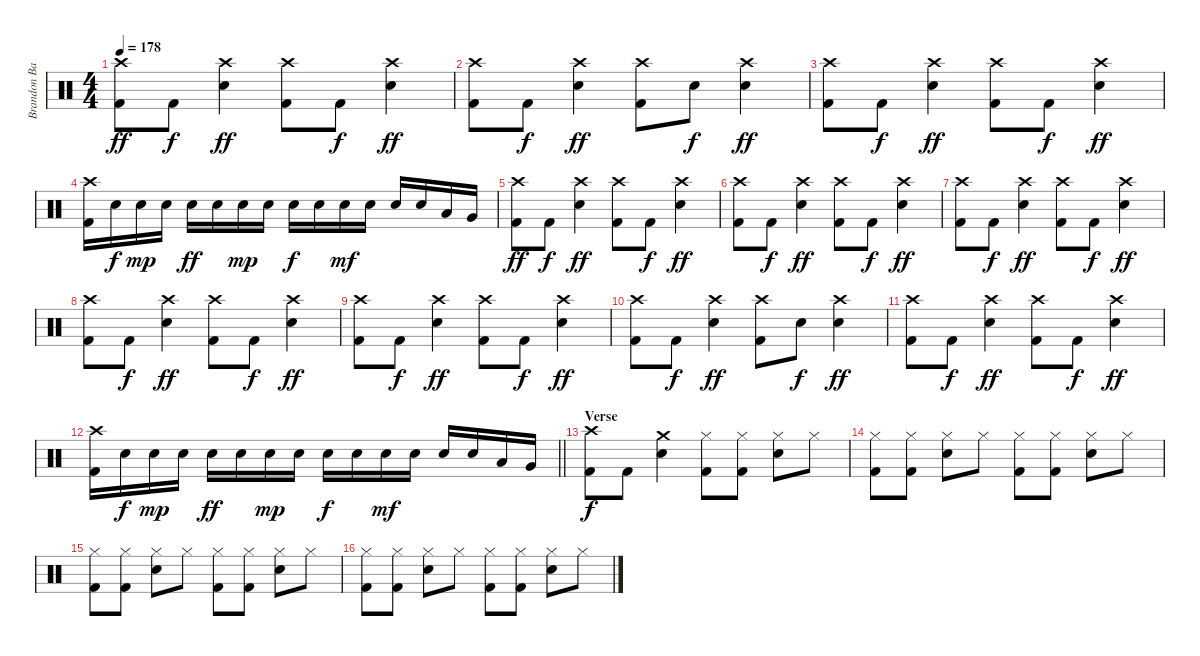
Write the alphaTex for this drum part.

\track ("Brandon Barnes - Drums" "Brandon Ba") {instrument percussion}
\staff {score}
\articulation defaults
\ts (4 4)
\tempo 178
\clef neutral
\ks c
("Crash high (hit)" "Kick (hit) 2").8{dy ff} "Kick (hit) 2".8{dy f} ("Snare (hit) 2" "Crash high (hit)").4{dy ff} ("Crash high (hit)" "Kick (hit) 2").8 "Kick (hit) 2".8{dy f} ("Snare (hit) 2" "Crash high (hit)").4{dy ff} |
("Crash high (hit)" "Kick (hit) 2").8 "Kick (hit) 2".8{dy f} ("Snare (hit) 2" "Crash high (hit)").4{dy ff} ("Crash high (hit)" "Kick (hit) 2").8 "Snare (hit) 2".8{dy f} ("Snare (hit) 2" "Crash high (hit)").4{dy ff} |
("Crash high (hit)" "Kick (hit) 2").8 "Kick (hit) 2".8{dy f} ("Snare (hit) 2" "Crash high (hit)").4{dy ff} ("Crash high (hit)" "Kick (hit) 2").8 "Kick (hit) 2".8{dy f} ("Snare (hit) 2" "Crash high (hit)").4{dy ff} |
("Crash high (hit)" "Kick (hit) 2").16 "Snare (hit) 2".16{dy f} "Snare (hit) 2".16{dy mp} "Snare (hit) 2".16 "Snare (hit) 2".16{dy ff} "Snare (hit) 2".16 "Snare (hit) 2".16{dy mp} "Snare (hit) 2".16 "Snare (hit) 2".16{dy f} "Snare (hit) 2".16 "Snare (hit) 2".16{dy mf} "Snare (hit) 2".16 "Snare (hit) 2".16 "Snare (hit) 2".16 "Low Tom (hit)".16 "Very Low Tom (hit)".16 |
("Crash high (hit)" "Kick (hit) 2").8{dy ff} "Kick (hit) 2".8{dy f} ("Snare (hit) 2" "Crash high (hit)").4{dy ff} ("Crash high (hit)" "Kick (hit) 2").8 "Kick (hit) 2".8{dy f} ("Snare (hit) 2" "Crash high (hit)").4{dy ff} |
("Crash high (hit)" "Kick (hit) 2").8 "Kick (hit) 2".8{dy f} ("Snare (hit) 2" "Crash high (hit)").4{dy ff} ("Crash high (hit)" "Kick (hit) 2").8 "Kick (hit) 2".8{dy f} ("Snare (hit) 2" "Crash high (hit)").4{dy ff} |
("Crash high (hit)" "Kick (hit) 2").8 "Kick (hit) 2".8{dy f} ("Snare (hit) 2" "Crash high (hit)").4{dy ff} ("Crash high (hit)" "Kick (hit) 2").8 "Kick (hit) 2".8{dy f} ("Snare (hit) 2" "Crash high (hit)").4{dy ff} |
("Crash high (hit)" "Kick (hit) 2").8 "Kick (hit) 2".8{dy f} ("Snare (hit) 2" "Crash high (hit)").4{dy ff} ("Crash high (hit)" "Kick (hit) 2").8 "Kick (hit) 2".8{dy f} ("Snare (hit) 2" "Crash high (hit)").4{dy ff} |
("Crash high (hit)" "Kick (hit) 2").8 "Kick (hit) 2".8{dy f} ("Snare (hit) 2" "Crash high (hit)").4{dy ff} ("Crash high (hit)" "Kick (hit) 2").8 "Kick (hit) 2".8{dy f} ("Snare (hit) 2" "Crash high (hit)").4{dy ff} |
("Crash high (hit)" "Kick (hit) 2").8 "Kick (hit) 2".8{dy f} ("Snare (hit) 2" "Crash high (hit)").4{dy ff} ("Crash high (hit)" "Kick (hit) 2").8 "Snare (hit) 2".8{dy f} ("Snare (hit) 2" "Crash high (hit)").4{dy ff} |
("Crash high (hit)" "Kick (hit) 2").8 "Kick (hit) 2".8{dy f} ("Snare (hit) 2" "Crash high (hit)").4{dy ff} ("Crash high (hit)" "Kick (hit) 2").8 "Kick (hit) 2".8{dy f} ("Snare (hit) 2" "Crash high (hit)").4{dy ff} |
\barLineRight lightlight
("Crash high (hit)" "Kick (hit) 2").16 "Snare (hit) 2".16{dy f} "Snare (hit) 2".16{dy mp} "Snare (hit) 2".16 "Snare (hit) 2".16{dy ff} "Snare (hit) 2".16 "Snare (hit) 2".16{dy mp} "Snare (hit) 2".16 "Snare (hit) 2".16{dy f} "Snare (hit) 2".16 "Snare (hit) 2".16{dy mf} "Snare (hit) 2".16 "Snare (hit) 2".16 "Snare (hit) 2".16 "Low Tom (hit)".16 "Very Low Tom (hit)".16 |
\section ("" "Verse")
("Kick (hit) 2" "Crash high (hit)").8{dy f} "Kick (hit) 2".8 ("Snare (hit) 2" "Crash medium (hit)").4 ("Kick (hit) 2" "Hi-Hat (closed)").8 ("Kick (hit) 2" "Hi-Hat (closed)").8 ("Snare (hit) 2" "Hi-Hat (closed)").8 "Hi-Hat (closed)".8 |
("Kick (hit) 2" "Hi-Hat (closed)").8 ("Kick (hit) 2" "Hi-Hat (closed)").8 ("Snare (hit) 2" "Hi-Hat (closed)").8 "Hi-Hat (closed)".8 ("Kick (hit) 2" "Hi-Hat (closed)").8 ("Kick (hit) 2" "Hi-Hat (closed)").8 ("Snare (hit) 2" "Hi-Hat (closed)").8 "Hi-Hat (closed)".8 |
("Kick (hit) 2" "Hi-Hat (closed)").8 ("Kick (hit) 2" "Hi-Hat (closed)").8 ("Snare (hit) 2" "Hi-Hat (closed)").8 "Hi-Hat (closed)".8 ("Kick (hit) 2" "Hi-Hat (closed)").8 ("Kick (hit) 2" "Hi-Hat (closed)").8 ("Snare (hit) 2" "Hi-Hat (closed)").8 "Hi-Hat (closed)".8 |
("Kick (hit) 2" "Hi-Hat (closed)").8 ("Kick (hit) 2" "Hi-Hat (closed)").8 ("Snare (hit) 2" "Hi-Hat (closed)").8 "Hi-Hat (closed)".8 ("Kick (hit) 2" "Hi-Hat (closed)").8 ("Kick (hit) 2" "Hi-Hat (closed)").8 ("Snare (hit) 2" "Hi-Hat (closed)").8 "Hi-Hat (closed)".8
